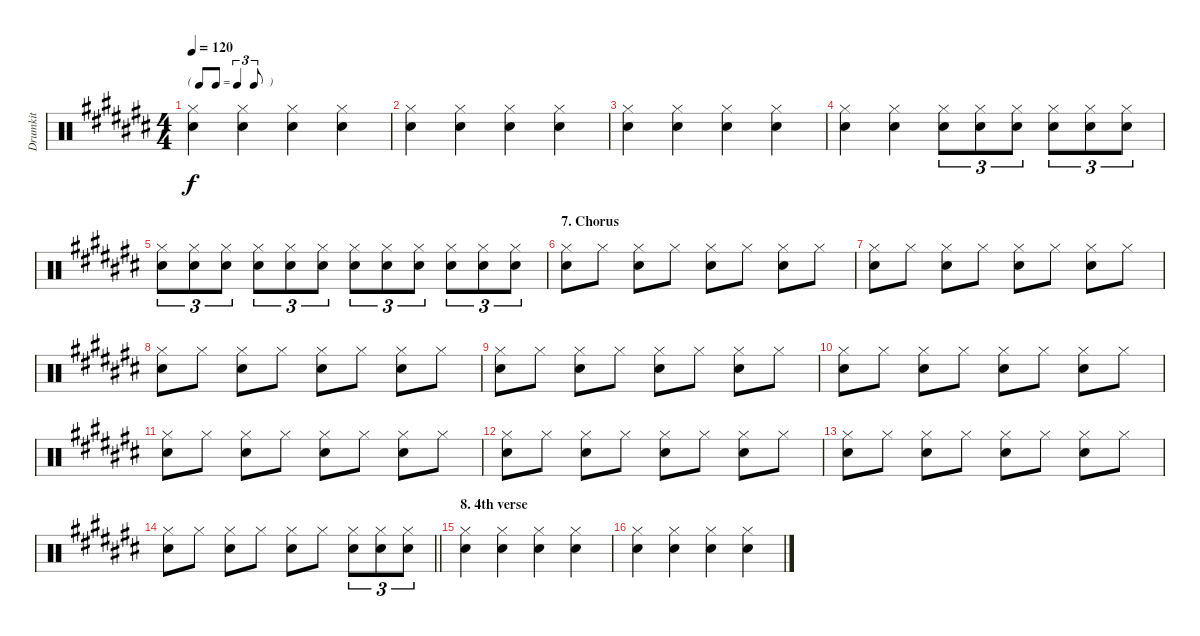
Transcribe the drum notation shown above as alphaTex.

\track ("Drumkit" "Drumkit") {instrument percussion}
\staff {score}
\articulation defaults
\ts (4 4)
\tf triplet8th
\tempo 120
\clef neutral
\ks c#
("Snare (hit) 2" "Hi-Hat (closed)").4{dy f} ("Snare (hit) 2" "Hi-Hat (closed)").4 ("Snare (hit) 2" "Hi-Hat (closed)").4 ("Snare (hit) 2" "Hi-Hat (closed)").4 |
("Snare (hit) 2" "Hi-Hat (closed)").4 ("Snare (hit) 2" "Hi-Hat (closed)").4 ("Snare (hit) 2" "Hi-Hat (closed)").4 ("Snare (hit) 2" "Hi-Hat (closed)").4 |
("Snare (hit) 2" "Hi-Hat (closed)").4 ("Snare (hit) 2" "Hi-Hat (closed)").4 ("Snare (hit) 2" "Hi-Hat (closed)").4 ("Snare (hit) 2" "Hi-Hat (closed)").4 |
("Snare (hit) 2" "Hi-Hat (closed)").4 ("Snare (hit) 2" "Hi-Hat (closed)").4 ("Snare (hit) 2" "Hi-Hat (closed)").8{tu (3 2)} ("Snare (hit) 2" "Hi-Hat (closed)").8{tu (3 2)} ("Snare (hit) 2" "Hi-Hat (closed)").8{tu (3 2)} ("Snare (hit) 2" "Hi-Hat (closed)").8{tu (3 2)} ("Snare (hit) 2" "Hi-Hat (closed)").8{tu (3 2)} ("Snare (hit) 2" "Hi-Hat (closed)").8{tu (3 2)} |
("Snare (hit) 2" "Hi-Hat (closed)").8{tu (3 2)} ("Snare (hit) 2" "Hi-Hat (closed)").8{tu (3 2)} ("Snare (hit) 2" "Hi-Hat (closed)").8{tu (3 2)} ("Snare (hit) 2" "Hi-Hat (closed)").8{tu (3 2)} ("Snare (hit) 2" "Hi-Hat (closed)").8{tu (3 2)} ("Snare (hit) 2" "Hi-Hat (closed)").8{tu (3 2)} ("Snare (hit) 2" "Hi-Hat (closed)").8{tu (3 2)} ("Snare (hit) 2" "Hi-Hat (closed)").8{tu (3 2)} ("Snare (hit) 2" "Hi-Hat (closed)").8{tu (3 2)} ("Snare (hit) 2" "Hi-Hat (closed)").8{tu (3 2)} ("Snare (hit) 2" "Hi-Hat (closed)").8{tu (3 2)} ("Snare (hit) 2" "Hi-Hat (closed)").8{tu (3 2)} |
\section ("" "7. Chorus")
("Snare (hit) 2" "Hi-Hat (closed)").8 "Hi-Hat (closed)".8 ("Snare (hit) 2" "Hi-Hat (closed)").8 "Hi-Hat (closed)".8 ("Snare (hit) 2" "Hi-Hat (closed)").8 "Hi-Hat (closed)".8 ("Snare (hit) 2" "Hi-Hat (closed)").8 "Hi-Hat (closed)".8 |
("Snare (hit) 2" "Hi-Hat (closed)").8 "Hi-Hat (closed)".8 ("Snare (hit) 2" "Hi-Hat (closed)").8 "Hi-Hat (closed)".8 ("Snare (hit) 2" "Hi-Hat (closed)").8 "Hi-Hat (closed)".8 ("Snare (hit) 2" "Hi-Hat (closed)").8 "Hi-Hat (closed)".8 |
("Snare (hit) 2" "Hi-Hat (closed)").8 "Hi-Hat (closed)".8 ("Snare (hit) 2" "Hi-Hat (closed)").8 "Hi-Hat (closed)".8 ("Snare (hit) 2" "Hi-Hat (closed)").8 "Hi-Hat (closed)".8 ("Snare (hit) 2" "Hi-Hat (closed)").8 "Hi-Hat (closed)".8 |
("Snare (hit) 2" "Hi-Hat (closed)").8 "Hi-Hat (closed)".8 ("Snare (hit) 2" "Hi-Hat (closed)").8 "Hi-Hat (closed)".8 ("Snare (hit) 2" "Hi-Hat (closed)").8 "Hi-Hat (closed)".8 ("Snare (hit) 2" "Hi-Hat (closed)").8 "Hi-Hat (closed)".8 |
("Snare (hit) 2" "Hi-Hat (closed)").8 "Hi-Hat (closed)".8 ("Snare (hit) 2" "Hi-Hat (closed)").8 "Hi-Hat (closed)".8 ("Snare (hit) 2" "Hi-Hat (closed)").8 "Hi-Hat (closed)".8 ("Snare (hit) 2" "Hi-Hat (closed)").8 "Hi-Hat (closed)".8 |
("Snare (hit) 2" "Hi-Hat (closed)").8 "Hi-Hat (closed)".8 ("Snare (hit) 2" "Hi-Hat (closed)").8 "Hi-Hat (closed)".8 ("Snare (hit) 2" "Hi-Hat (closed)").8 "Hi-Hat (closed)".8 ("Snare (hit) 2" "Hi-Hat (closed)").8 "Hi-Hat (closed)".8 |
("Snare (hit) 2" "Hi-Hat (closed)").8 "Hi-Hat (closed)".8 ("Snare (hit) 2" "Hi-Hat (closed)").8 "Hi-Hat (closed)".8 ("Snare (hit) 2" "Hi-Hat (closed)").8 "Hi-Hat (closed)".8 ("Snare (hit) 2" "Hi-Hat (closed)").8 "Hi-Hat (closed)".8 |
("Snare (hit) 2" "Hi-Hat (closed)").8 "Hi-Hat (closed)".8 ("Snare (hit) 2" "Hi-Hat (closed)").8 "Hi-Hat (closed)".8 ("Snare (hit) 2" "Hi-Hat (closed)").8 "Hi-Hat (closed)".8 ("Snare (hit) 2" "Hi-Hat (closed)").8 "Hi-Hat (closed)".8 |
\barLineRight lightlight
("Snare (hit) 2" "Hi-Hat (closed)").8 "Hi-Hat (closed)".8 ("Snare (hit) 2" "Hi-Hat (closed)").8 "Hi-Hat (closed)".8 ("Snare (hit) 2" "Hi-Hat (closed)").8 "Hi-Hat (closed)".8 ("Hi-Hat (closed)" "Snare (hit) 2").8{tu (3 2)} ("Hi-Hat (closed)" "Snare (hit) 2").8{tu (3 2)} ("Hi-Hat (closed)" "Snare (hit) 2").8{tu (3 2)} |
\section ("" "8. 4th verse")
("Snare (hit) 2" "Hi-Hat (closed)").4 ("Snare (hit) 2" "Hi-Hat (closed)").4 ("Snare (hit) 2" "Hi-Hat (closed)").4 ("Snare (hit) 2" "Hi-Hat (closed)").4 |
("Snare (hit) 2" "Hi-Hat (closed)").4 ("Snare (hit) 2" "Hi-Hat (closed)").4 ("Snare (hit) 2" "Hi-Hat (closed)").4 ("Snare (hit) 2" "Hi-Hat (closed)").4
